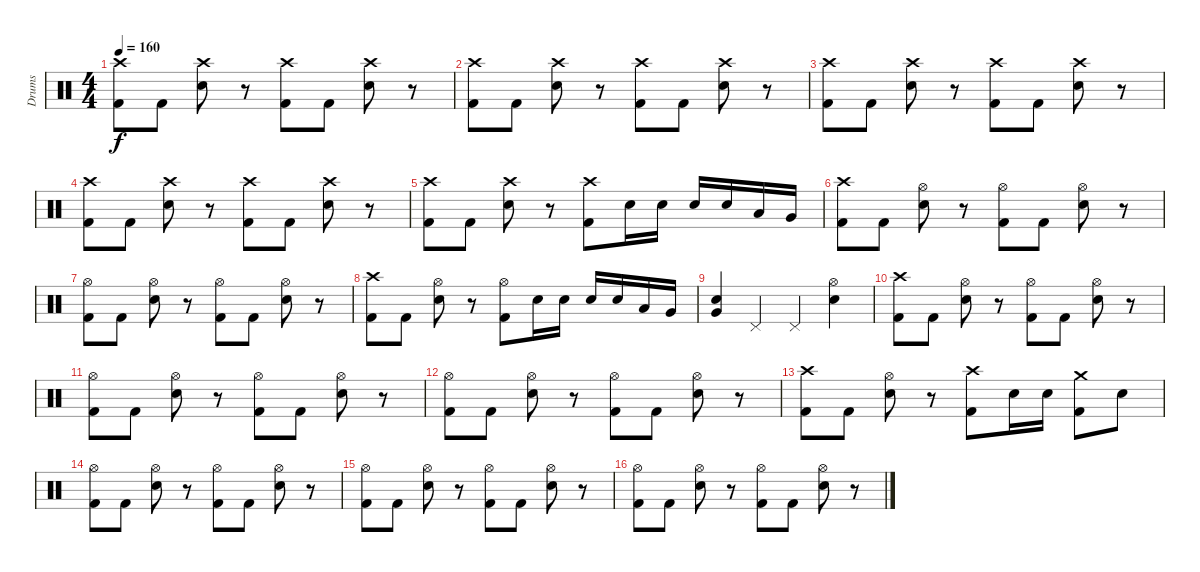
\track ("Drums" "Drums") {instrument percussion}
\staff {score}
\articulation defaults
\ts (4 4)
\tempo 160
\clef neutral
\ks c
("Crash high (hit)" "Kick (hit) 2").8{dy f} "Kick (hit) 2".8 ("Crash high (hit)" "Electric Snare (hit)").8 r.8 ("Crash high (hit)" "Kick (hit) 2").8 "Kick (hit) 2".8 ("Crash high (hit)" "Electric Snare (hit)").8 r.8 |
("Crash high (hit)" "Kick (hit) 2").8 "Kick (hit) 2".8 ("Crash high (hit)" "Electric Snare (hit)").8 r.8 ("Crash high (hit)" "Kick (hit) 2").8 "Kick (hit) 2".8 ("Crash high (hit)" "Electric Snare (hit)").8 r.8 |
("Crash high (hit)" "Kick (hit) 2").8 "Kick (hit) 2".8 ("Crash high (hit)" "Electric Snare (hit)").8 r.8 ("Crash high (hit)" "Kick (hit) 2").8 "Kick (hit) 2".8 ("Crash high (hit)" "Electric Snare (hit)").8 r.8 |
("Crash high (hit)" "Kick (hit) 2").8 "Kick (hit) 2".8 ("Crash high (hit)" "Electric Snare (hit)").8 r.8 ("Crash high (hit)" "Kick (hit) 2").8 "Kick (hit) 2".8 ("Crash high (hit)" "Electric Snare (hit)").8 r.8 |
("Crash high (hit)" "Kick (hit) 2").8 "Kick (hit) 2".8 ("Crash high (hit)" "Electric Snare (hit)").8 r.8 ("Crash high (hit)" "Kick (hit) 2").8 "Electric Snare (hit)".16 "Electric Snare (hit)".16 "Electric Snare (hit)".16 "Electric Snare (hit)".16 "Low Tom (hit)".16 "Very Low Tom (hit)".16 |
("Crash high (hit)" "Kick (hit) 2").8 "Kick (hit) 2".8 ("Hi-Hat (open)" "Electric Snare (hit)").8 r.8 ("Hi-Hat (open)" "Kick (hit) 2").8 "Kick (hit) 2".8 ("Hi-Hat (open)" "Electric Snare (hit)").8 r.8 |
("Hi-Hat (open)" "Kick (hit) 2").8 "Kick (hit) 2".8 ("Hi-Hat (open)" "Electric Snare (hit)").8 r.8 ("Hi-Hat (open)" "Kick (hit) 2").8 "Kick (hit) 2".8 ("Hi-Hat (open)" "Electric Snare (hit)").8 r.8 |
("Crash high (hit)" "Kick (hit) 2").8 "Kick (hit) 2".8 ("Hi-Hat (open)" "Electric Snare (hit)").8 r.8 ("Hi-Hat (open)" "Kick (hit) 2").8 "Electric Snare (hit)".16 "Electric Snare (hit)".16 "Electric Snare (hit)".16 "Electric Snare (hit)".16 "Low Tom (hit)".16 "Very Low Tom (hit)".16 |
("Very Low Tom (hit)" "Electric Snare (hit)").4 "Pedal Hi-Hat (hit)".4 "Pedal Hi-Hat (hit)".4 ("Hi-Hat (open)" "Electric Snare (hit)").4 |
("Crash high (hit)" "Kick (hit) 2").8 "Kick (hit) 2".8 ("Hi-Hat (open)" "Electric Snare (hit)").8 r.8 ("Hi-Hat (open)" "Kick (hit) 2").8 "Kick (hit) 2".8 ("Hi-Hat (open)" "Electric Snare (hit)").8 r.8 |
("Hi-Hat (open)" "Kick (hit) 2").8 "Kick (hit) 2".8 ("Hi-Hat (open)" "Electric Snare (hit)").8 r.8 ("Hi-Hat (open)" "Kick (hit) 2").8 "Kick (hit) 2".8 ("Hi-Hat (open)" "Electric Snare (hit)").8 r.8 |
("Hi-Hat (open)" "Kick (hit) 2").8 "Kick (hit) 2".8 ("Hi-Hat (open)" "Electric Snare (hit)").8 r.8 ("Hi-Hat (open)" "Kick (hit) 2").8 "Kick (hit) 2".8 ("Hi-Hat (open)" "Electric Snare (hit)").8 r.8 |
("Crash high (hit)" "Kick (hit) 2").8 "Kick (hit) 2".8 ("Hi-Hat (open)" "Electric Snare (hit)").8 r.8 ("Crash high (hit)" "Kick (hit) 2").8 "Electric Snare (hit)".16 "Electric Snare (hit)".16 ("Crash medium (hit)" "Kick (hit) 2").8 "Electric Snare (hit)".8 |
("Hi-Hat (open)" "Kick (hit) 2").8 "Kick (hit) 2".8 ("Hi-Hat (open)" "Electric Snare (hit)").8 r.8 ("Hi-Hat (open)" "Kick (hit) 2").8 "Kick (hit) 2".8 ("Hi-Hat (open)" "Electric Snare (hit)").8 r.8 |
("Hi-Hat (open)" "Kick (hit) 2").8 "Kick (hit) 2".8 ("Hi-Hat (open)" "Electric Snare (hit)").8 r.8 ("Hi-Hat (open)" "Kick (hit) 2").8 "Kick (hit) 2".8 ("Hi-Hat (open)" "Electric Snare (hit)").8 r.8 |
("Hi-Hat (open)" "Kick (hit) 2").8 "Kick (hit) 2".8 ("Hi-Hat (open)" "Electric Snare (hit)").8 r.8 ("Hi-Hat (open)" "Kick (hit) 2").8 "Kick (hit) 2".8 ("Hi-Hat (open)" "Electric Snare (hit)").8 r.8
